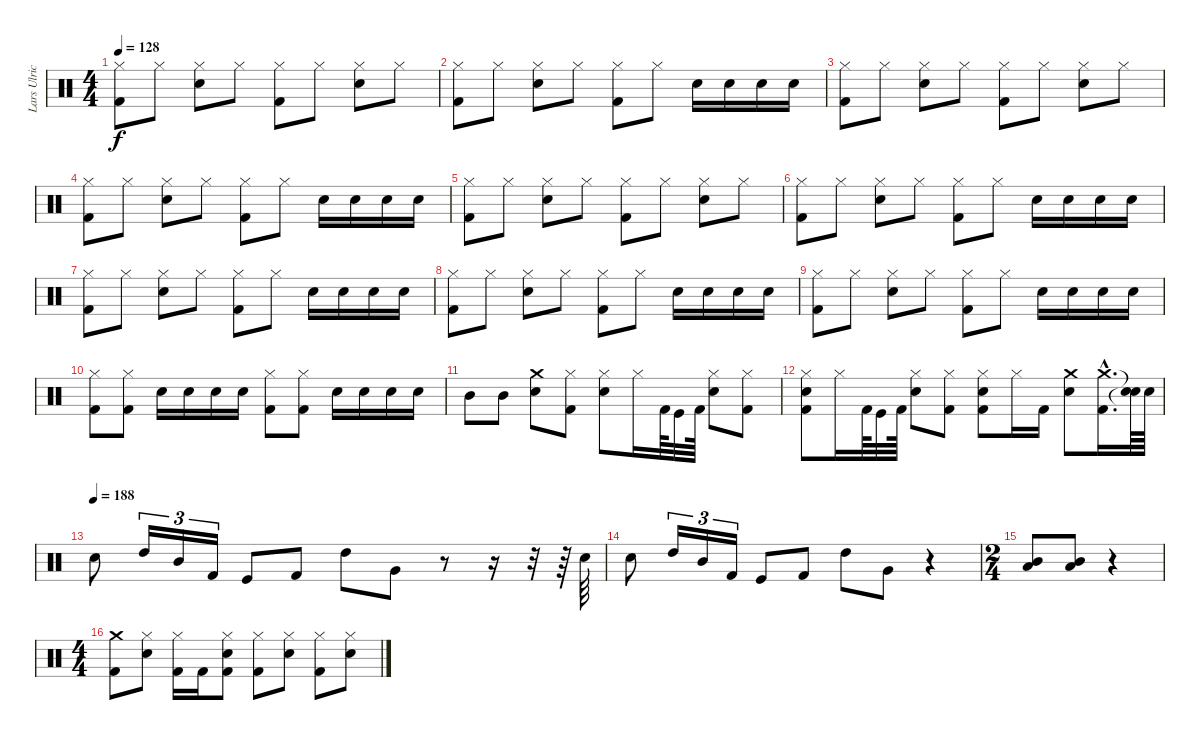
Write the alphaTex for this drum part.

\track ("Lars Ulrich (Drums)" "Lars Ulric") {instrument percussion}
\staff {score}
\articulation defaults
\ts (4 4)
\tempo 128
\clef neutral
\ks c
("Hi-Hat (closed)" "Kick (hit) 2").8{dy f} "Hi-Hat (closed)".8 ("Snare (hit) 2" "Hi-Hat (closed)").8 "Hi-Hat (closed)".8 ("Hi-Hat (closed)" "Kick (hit) 2").8 "Hi-Hat (closed)".8 ("Snare (hit) 2" "Hi-Hat (closed)").8 "Hi-Hat (closed)".8 |
("Hi-Hat (closed)" "Kick (hit) 2").8 "Hi-Hat (closed)".8 ("Snare (hit) 2" "Hi-Hat (closed)").8 "Hi-Hat (closed)".8 ("Hi-Hat (closed)" "Kick (hit) 2").8 "Hi-Hat (closed)".8 "Snare (hit) 2".16 "Snare (hit) 2".16 "Snare (hit) 2".16 "Snare (hit) 2".16 |
("Hi-Hat (closed)" "Kick (hit) 2").8 "Hi-Hat (closed)".8 ("Snare (hit) 2" "Hi-Hat (closed)").8 "Hi-Hat (closed)".8 ("Hi-Hat (closed)" "Kick (hit) 2").8 "Hi-Hat (closed)".8 ("Snare (hit) 2" "Hi-Hat (closed)").8 "Hi-Hat (closed)".8 |
("Hi-Hat (closed)" "Kick (hit) 2").8 "Hi-Hat (closed)".8 ("Snare (hit) 2" "Hi-Hat (closed)").8 "Hi-Hat (closed)".8 ("Hi-Hat (closed)" "Kick (hit) 2").8 "Hi-Hat (closed)".8 "Snare (hit) 2".16 "Snare (hit) 2".16 "Snare (hit) 2".16 "Snare (hit) 2".16 |
("Hi-Hat (closed)" "Kick (hit) 2").8 "Hi-Hat (closed)".8 ("Snare (hit) 2" "Hi-Hat (closed)").8 "Hi-Hat (closed)".8 ("Hi-Hat (closed)" "Kick (hit) 2").8 "Hi-Hat (closed)".8 ("Snare (hit) 2" "Hi-Hat (closed)").8 "Hi-Hat (closed)".8 |
("Hi-Hat (closed)" "Kick (hit) 2").8 "Hi-Hat (closed)".8 ("Snare (hit) 2" "Hi-Hat (closed)").8 "Hi-Hat (closed)".8 ("Hi-Hat (closed)" "Kick (hit) 2").8 "Hi-Hat (closed)".8 "Snare (hit) 2".16 "Snare (hit) 2".16 "Snare (hit) 2".16 "Snare (hit) 2".16 |
("Hi-Hat (closed)" "Kick (hit) 2").8 "Hi-Hat (closed)".8 ("Snare (hit) 2" "Hi-Hat (closed)").8 "Hi-Hat (closed)".8 ("Hi-Hat (closed)" "Kick (hit) 2").8 "Hi-Hat (closed)".8 "Snare (hit) 2".16 "Snare (hit) 2".16 "Snare (hit) 2".16 "Snare (hit) 2".16 |
("Hi-Hat (closed)" "Kick (hit) 2").8 "Hi-Hat (closed)".8 ("Snare (hit) 2" "Hi-Hat (closed)").8 "Hi-Hat (closed)".8 ("Hi-Hat (closed)" "Kick (hit) 2").8 "Hi-Hat (closed)".8 "Snare (hit) 2".16 "Snare (hit) 2".16 "Snare (hit) 2".16 "Snare (hit) 2".16 |
("Hi-Hat (closed)" "Kick (hit) 2").8 "Hi-Hat (closed)".8 ("Snare (hit) 2" "Hi-Hat (closed)").8 "Hi-Hat (closed)".8 ("Hi-Hat (closed)" "Kick (hit) 2").8 "Hi-Hat (closed)".8 "Snare (hit) 2".16 "Snare (hit) 2".16 "Snare (hit) 2".16 "Snare (hit) 2".16 |
("Kick (hit) 2" "Hi-Hat (closed)").8 ("Kick (hit) 2" "Hi-Hat (closed)").8 "Snare (hit) 2".16 "Snare (hit) 2".16 "Snare (hit) 2".16 "Snare (hit) 2".16 ("Kick (hit) 2" "Hi-Hat (closed)").8 ("Kick (hit) 2" "Hi-Hat (closed)").8 "Snare (hit) 2".16 "Snare (hit) 2".16 "Snare (hit) 2".16 "Snare (hit) 2".16 |
"Mid Tom (hit)".8 "Mid Tom (hit)".8 ("Crash medium (hit)" "Snare (hit) 2").8 ("Kick (hit) 2" "Hi-Hat (closed)").8 ("Snare (hit) 2" "Hi-Hat (closed)").8 "Hi-Hat (closed)".16 "Kick (hit) 2".64 "Kick (hit)".32 "Kick (hit) 2".64 ("Snare (hit) 2" "Hi-Hat (closed)").8 ("Kick (hit) 2" "Hi-Hat (closed)").8 |
("Hi-Hat (closed)" "Snare (hit) 2" "Kick (hit) 2").8 "Hi-Hat (closed)".16 "Kick (hit) 2".64 "Kick (hit)".32 "Kick (hit) 2".64 ("Snare (hit) 2" "Hi-Hat (closed)").8 ("Hi-Hat (closed)" "Kick (hit) 2").8 ("Snare (hit) 2" "Hi-Hat (closed)" "Kick (hit) 2").8 "Hi-Hat (closed)".16 "Kick (hit) 2".16 ("Crash medium (hit)" "Snare (hit) 2").8 ("Crash medium (hit)"{hac} "Kick (hit) 2"{hac}).16{d} ("Snare (hit)"{t} "Snare (hit)"{t}).64 "Snare (hit) 2".64 |
\tempo (188)
"Snare (hit) 2".8 "High Tom (hit)".16{tu (3 2)} "Mid Tom (hit)".16{tu (3 2)} "Kick (hit) 2".16{tu (3 2)} "Kick (hit)".8 "Kick (hit) 2".8 "High Tom (hit)".8 "Very Low Tom (hit)".8 r.8 r.16 r.32 r.64 "Snare (hit) 2".64 |
"Snare (hit) 2".8 "High Tom (hit)".16{tu (3 2)} "Mid Tom (hit)".16{tu (3 2)} "Kick (hit) 2".16{tu (3 2)} "Kick (hit)".8 "Kick (hit) 2".8 "High Tom (hit)".8 "Very Low Tom (hit)".8 r.4 |
\ts (2 4)
("Mid Tom (hit)" "Low Tom (hit)").8 ("Mid Tom (hit)" "Low Tom (hit)").8 r.4 |
\ts (4 4)
("Kick (hit) 2" "Crash medium (hit)").8 ("Hi-Hat (closed)" "Snare (hit) 2").8 ("Kick (hit) 2" "Hi-Hat (closed)").16 "Kick (hit) 2".16 ("Kick (hit) 2" "Snare (hit) 2" "Hi-Hat (closed)").8 ("Kick (hit) 2" "Hi-Hat (closed)").8 ("Snare (hit) 2" "Hi-Hat (closed)").8 ("Kick (hit) 2" "Hi-Hat (closed)").8 ("Snare (hit) 2" "Hi-Hat (closed)").8
